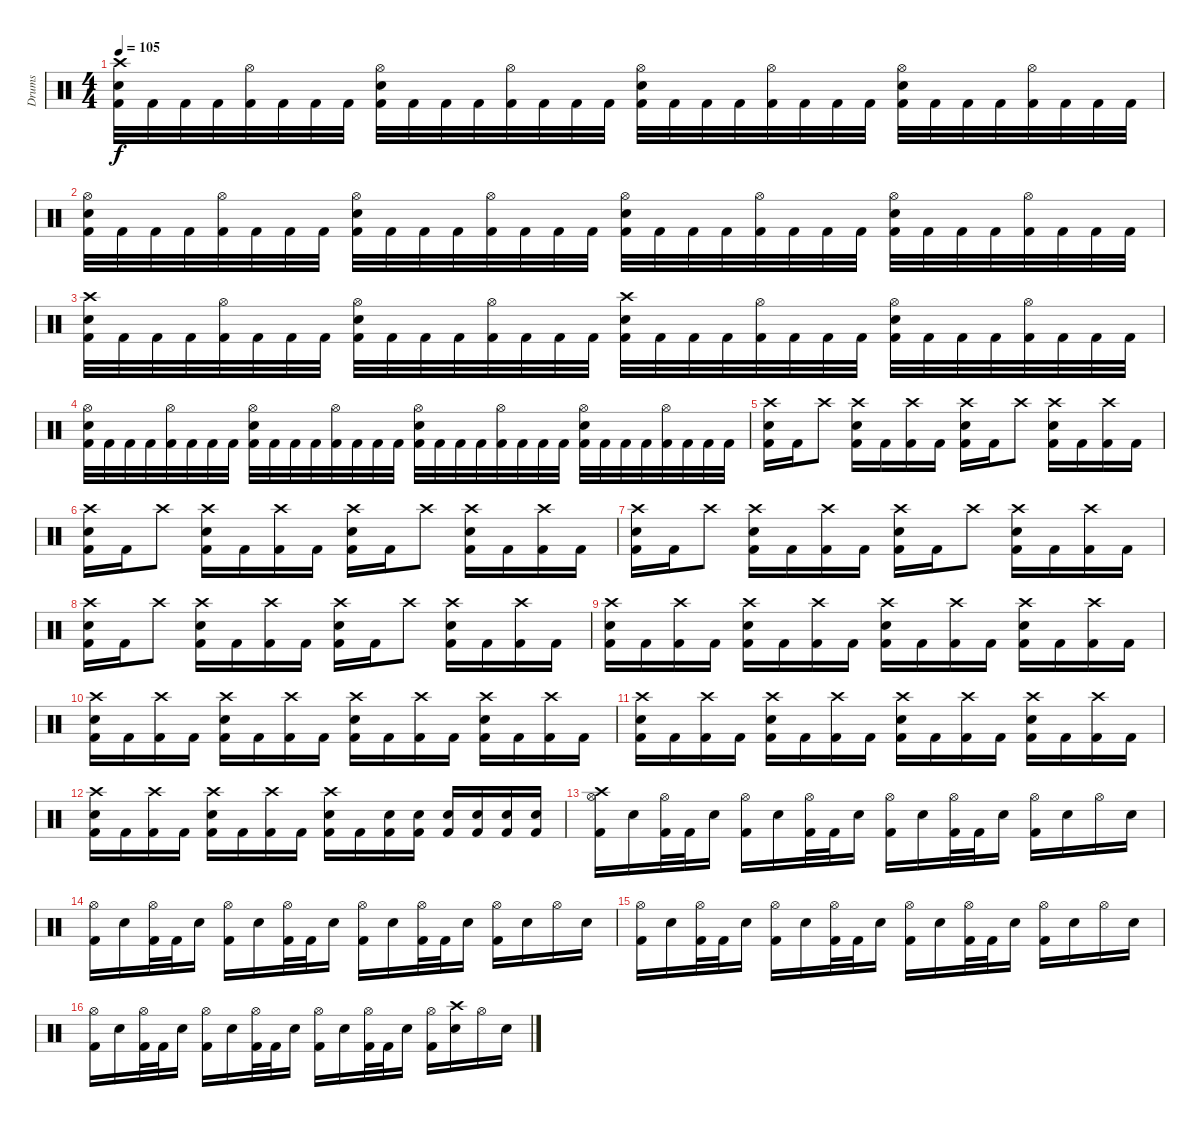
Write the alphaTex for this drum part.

\track ("Drums" "Drums") {instrument percussion}
\staff {score}
\articulation defaults
\ts (4 4)
\tempo 105
\clef neutral
\ks c
("Crash high (hit)" "Snare (hit) 2" "Kick (hit) 2").32{dy f} "Kick (hit) 2".32 "Kick (hit) 2".32 "Kick (hit) 2".32 ("Hi-Hat (open)" "Kick (hit) 2").32 "Kick (hit) 2".32 "Kick (hit) 2".32 "Kick (hit) 2".32 ("Snare (hit) 2" "Hi-Hat (open)" "Kick (hit) 2").32 "Kick (hit) 2".32 "Kick (hit) 2".32 "Kick (hit) 2".32 ("Hi-Hat (open)" "Kick (hit) 2").32 "Kick (hit) 2".32 "Kick (hit) 2".32 "Kick (hit) 2".32 ("Snare (hit) 2" "Hi-Hat (open)" "Kick (hit) 2").32 "Kick (hit) 2".32 "Kick (hit) 2".32 "Kick (hit) 2".32 ("Hi-Hat (open)" "Kick (hit) 2").32 "Kick (hit) 2".32 "Kick (hit) 2".32 "Kick (hit) 2".32 ("Snare (hit) 2" "Hi-Hat (open)" "Kick (hit) 2").32 "Kick (hit) 2".32 "Kick (hit) 2".32 "Kick (hit) 2".32 ("Hi-Hat (open)" "Kick (hit) 2").32 "Kick (hit) 2".32 "Kick (hit) 2".32 "Kick (hit) 2".32 |
("Snare (hit) 2" "Hi-Hat (open)" "Kick (hit) 2").32 "Kick (hit) 2".32 "Kick (hit) 2".32 "Kick (hit) 2".32 ("Hi-Hat (open)" "Kick (hit) 2").32 "Kick (hit) 2".32 "Kick (hit) 2".32 "Kick (hit) 2".32 ("Snare (hit) 2" "Hi-Hat (open)" "Kick (hit) 2").32 "Kick (hit) 2".32 "Kick (hit) 2".32 "Kick (hit) 2".32 ("Hi-Hat (open)" "Kick (hit) 2").32 "Kick (hit) 2".32 "Kick (hit) 2".32 "Kick (hit) 2".32 ("Snare (hit) 2" "Hi-Hat (open)" "Kick (hit) 2").32 "Kick (hit) 2".32 "Kick (hit) 2".32 "Kick (hit) 2".32 ("Hi-Hat (open)" "Kick (hit) 2").32 "Kick (hit) 2".32 "Kick (hit) 2".32 "Kick (hit) 2".32 ("Snare (hit) 2" "Hi-Hat (open)" "Kick (hit) 2").32 "Kick (hit) 2".32 "Kick (hit) 2".32 "Kick (hit) 2".32 ("Hi-Hat (open)" "Kick (hit) 2").32 "Kick (hit) 2".32 "Kick (hit) 2".32 "Kick (hit) 2".32 |
("Crash high (hit)" "Snare (hit) 2" "Kick (hit) 2").32 "Kick (hit) 2".32 "Kick (hit) 2".32 "Kick (hit) 2".32 ("Hi-Hat (open)" "Kick (hit) 2").32 "Kick (hit) 2".32 "Kick (hit) 2".32 "Kick (hit) 2".32 ("Snare (hit) 2" "Hi-Hat (open)" "Kick (hit) 2").32 "Kick (hit) 2".32 "Kick (hit) 2".32 "Kick (hit) 2".32 ("Hi-Hat (open)" "Kick (hit) 2").32 "Kick (hit) 2".32 "Kick (hit) 2".32 "Kick (hit) 2".32 ("Crash high (hit)" "Snare (hit) 2" "Kick (hit) 2").32 "Kick (hit) 2".32 "Kick (hit) 2".32 "Kick (hit) 2".32 ("Hi-Hat (open)" "Kick (hit) 2").32 "Kick (hit) 2".32 "Kick (hit) 2".32 "Kick (hit) 2".32 ("Snare (hit) 2" "Hi-Hat (open)" "Kick (hit) 2").32 "Kick (hit) 2".32 "Kick (hit) 2".32 "Kick (hit) 2".32 ("Hi-Hat (open)" "Kick (hit) 2").32 "Kick (hit) 2".32 "Kick (hit) 2".32 "Kick (hit) 2".32 |
("Snare (hit) 2" "Hi-Hat (open)" "Kick (hit) 2").32 "Kick (hit) 2".32 "Kick (hit) 2".32 "Kick (hit) 2".32 ("Hi-Hat (open)" "Kick (hit) 2").32 "Kick (hit) 2".32 "Kick (hit) 2".32 "Kick (hit) 2".32 ("Snare (hit) 2" "Hi-Hat (open)" "Kick (hit) 2").32 "Kick (hit) 2".32 "Kick (hit) 2".32 "Kick (hit) 2".32 ("Hi-Hat (open)" "Kick (hit) 2").32 "Kick (hit) 2".32 "Kick (hit) 2".32 "Kick (hit) 2".32 ("Snare (hit) 2" "Hi-Hat (open)" "Kick (hit) 2").32 "Kick (hit) 2".32 "Kick (hit) 2".32 "Kick (hit) 2".32 ("Hi-Hat (open)" "Kick (hit) 2").32 "Kick (hit) 2".32 "Kick (hit) 2".32 "Kick (hit) 2".32 ("Snare (hit) 2" "Hi-Hat (open)" "Kick (hit) 2").32 "Kick (hit) 2".32 "Kick (hit) 2".32 "Kick (hit) 2".32 ("Hi-Hat (open)" "Kick (hit) 2").32 "Kick (hit) 2".32 "Kick (hit) 2".32 "Kick (hit) 2".32 |
("Crash high (hit)" "Snare (hit) 2" "Kick (hit) 2").16 "Kick (hit) 2".16 "Crash high (hit)".8 ("Crash high (hit)" "Snare (hit) 2" "Kick (hit) 2").16 "Kick (hit) 2".16 ("Crash high (hit)" "Kick (hit) 2").16 "Kick (hit) 2".16 ("Crash high (hit)" "Snare (hit) 2" "Kick (hit) 2").16 "Kick (hit) 2".16 "Crash high (hit)".8 ("Crash high (hit)" "Snare (hit) 2" "Kick (hit) 2").16 "Kick (hit) 2".16 ("Crash high (hit)" "Kick (hit) 2").16 "Kick (hit) 2".16 |
("Crash high (hit)" "Snare (hit) 2" "Kick (hit) 2").16 "Kick (hit) 2".16 "Crash high (hit)".8 ("Crash high (hit)" "Snare (hit) 2" "Kick (hit) 2").16 "Kick (hit) 2".16 ("Crash high (hit)" "Kick (hit) 2").16 "Kick (hit) 2".16 ("Crash high (hit)" "Snare (hit) 2" "Kick (hit) 2").16 "Kick (hit) 2".16 "Crash high (hit)".8 ("Crash high (hit)" "Snare (hit) 2" "Kick (hit) 2").16 "Kick (hit) 2".16 ("Crash high (hit)" "Kick (hit) 2").16 "Kick (hit) 2".16 |
("Crash high (hit)" "Snare (hit) 2" "Kick (hit) 2").16 "Kick (hit) 2".16 "Crash high (hit)".8 ("Crash high (hit)" "Snare (hit) 2" "Kick (hit) 2").16 "Kick (hit) 2".16 ("Crash high (hit)" "Kick (hit) 2").16 "Kick (hit) 2".16 ("Crash high (hit)" "Snare (hit) 2" "Kick (hit) 2").16 "Kick (hit) 2".16 "Crash high (hit)".8 ("Crash high (hit)" "Snare (hit) 2" "Kick (hit) 2").16 "Kick (hit) 2".16 ("Crash high (hit)" "Kick (hit) 2").16 "Kick (hit) 2".16 |
("Crash high (hit)" "Snare (hit) 2" "Kick (hit) 2").16 "Kick (hit) 2".16 "Crash high (hit)".8 ("Crash high (hit)" "Snare (hit) 2" "Kick (hit) 2").16 "Kick (hit) 2".16 ("Crash high (hit)" "Kick (hit) 2").16 "Kick (hit) 2".16 ("Crash high (hit)" "Snare (hit) 2" "Kick (hit) 2").16 "Kick (hit) 2".16 "Crash high (hit)".8 ("Crash high (hit)" "Snare (hit) 2" "Kick (hit) 2").16 "Kick (hit) 2".16 ("Crash high (hit)" "Kick (hit) 2").16 "Kick (hit) 2".16 |
("Crash high (hit)" "Snare (hit) 2" "Kick (hit) 2").16 "Kick (hit) 2".16 ("Crash high (hit)" "Kick (hit) 2").16 "Kick (hit) 2".16 ("Crash high (hit)" "Snare (hit) 2" "Kick (hit) 2").16 "Kick (hit) 2".16 ("Crash high (hit)" "Kick (hit) 2").16 "Kick (hit) 2".16 ("Crash high (hit)" "Snare (hit) 2" "Kick (hit) 2").16 "Kick (hit) 2".16 ("Crash high (hit)" "Kick (hit) 2").16 "Kick (hit) 2".16 ("Crash high (hit)" "Snare (hit) 2" "Kick (hit) 2").16 "Kick (hit) 2".16 ("Crash high (hit)" "Kick (hit) 2").16 "Kick (hit) 2".16 |
("Crash high (hit)" "Snare (hit) 2" "Kick (hit) 2").16 "Kick (hit) 2".16 ("Crash high (hit)" "Kick (hit) 2").16 "Kick (hit) 2".16 ("Crash high (hit)" "Snare (hit) 2" "Kick (hit) 2").16 "Kick (hit) 2".16 ("Crash high (hit)" "Kick (hit) 2").16 "Kick (hit) 2".16 ("Crash high (hit)" "Snare (hit) 2" "Kick (hit) 2").16 "Kick (hit) 2".16 ("Crash high (hit)" "Kick (hit) 2").16 "Kick (hit) 2".16 ("Crash high (hit)" "Snare (hit) 2" "Kick (hit) 2").16 "Kick (hit) 2".16 ("Crash high (hit)" "Kick (hit) 2").16 "Kick (hit) 2".16 |
("Crash high (hit)" "Snare (hit) 2" "Kick (hit) 2").16 "Kick (hit) 2".16 ("Crash high (hit)" "Kick (hit) 2").16 "Kick (hit) 2".16 ("Crash high (hit)" "Snare (hit) 2" "Kick (hit) 2").16 "Kick (hit) 2".16 ("Crash high (hit)" "Kick (hit) 2").16 "Kick (hit) 2".16 ("Crash high (hit)" "Snare (hit) 2" "Kick (hit) 2").16 "Kick (hit) 2".16 ("Crash high (hit)" "Kick (hit) 2").16 "Kick (hit) 2".16 ("Crash high (hit)" "Snare (hit) 2" "Kick (hit) 2").16 "Kick (hit) 2".16 ("Crash high (hit)" "Kick (hit) 2").16 "Kick (hit) 2".16 |
("Crash high (hit)" "Snare (hit) 2" "Kick (hit) 2").16 "Kick (hit) 2".16 ("Crash high (hit)" "Kick (hit) 2").16 "Kick (hit) 2".16 ("Crash high (hit)" "Snare (hit) 2" "Kick (hit) 2").16 "Kick (hit) 2".16 ("Crash high (hit)" "Kick (hit) 2").16 "Kick (hit) 2".16 ("Crash high (hit)" "Snare (hit) 2" "Kick (hit) 2").16 "Kick (hit) 2".16 ("Snare (hit) 2" "Kick (hit) 2").16 ("Snare (hit) 2" "Kick (hit) 2").16 ("Snare (hit) 2" "Kick (hit) 2").16 ("Snare (hit) 2" "Kick (hit) 2").16 ("Snare (hit) 2" "Kick (hit) 2").16 ("Snare (hit) 2" "Kick (hit) 2").16 |
("Crash high (hit)" "Hi-Hat (open)" "Kick (hit) 2").16 "Snare (hit) 2".16 ("Hi-Hat (open)" "Kick (hit) 2").32 "Kick (hit) 2".32 "Snare (hit) 2".16 ("Hi-Hat (open)" "Kick (hit) 2").16 "Snare (hit) 2".16 ("Hi-Hat (open)" "Kick (hit) 2").32 "Kick (hit) 2".32 "Snare (hit) 2".16 ("Hi-Hat (open)" "Kick (hit) 2").16 "Snare (hit) 2".16 ("Hi-Hat (open)" "Kick (hit) 2").32 "Kick (hit) 2".32 "Snare (hit) 2".16 ("Hi-Hat (open)" "Kick (hit) 2").16 "Snare (hit) 2".16 "Hi-Hat (open)".16 "Snare (hit) 2".16 |
("Hi-Hat (open)" "Kick (hit) 2").16 "Snare (hit) 2".16 ("Hi-Hat (open)" "Kick (hit) 2").32 "Kick (hit) 2".32 "Snare (hit) 2".16 ("Hi-Hat (open)" "Kick (hit) 2").16 "Snare (hit) 2".16 ("Hi-Hat (open)" "Kick (hit) 2").32 "Kick (hit) 2".32 "Snare (hit) 2".16 ("Hi-Hat (open)" "Kick (hit) 2").16 "Snare (hit) 2".16 ("Hi-Hat (open)" "Kick (hit) 2").32 "Kick (hit) 2".32 "Snare (hit) 2".16 ("Hi-Hat (open)" "Kick (hit) 2").16 "Snare (hit) 2".16 "Hi-Hat (open)".16 "Snare (hit) 2".16 |
("Hi-Hat (open)" "Kick (hit) 2").16 "Snare (hit) 2".16 ("Hi-Hat (open)" "Kick (hit) 2").32 "Kick (hit) 2".32 "Snare (hit) 2".16 ("Hi-Hat (open)" "Kick (hit) 2").16 "Snare (hit) 2".16 ("Hi-Hat (open)" "Kick (hit) 2").32 "Kick (hit) 2".32 "Snare (hit) 2".16 ("Hi-Hat (open)" "Kick (hit) 2").16 "Snare (hit) 2".16 ("Hi-Hat (open)" "Kick (hit) 2").32 "Kick (hit) 2".32 "Snare (hit) 2".16 ("Hi-Hat (open)" "Kick (hit) 2").16 "Snare (hit) 2".16 "Hi-Hat (open)".16 "Snare (hit) 2".16 |
("Hi-Hat (open)" "Kick (hit) 2").16 "Snare (hit) 2".16 ("Hi-Hat (open)" "Kick (hit) 2").32 "Kick (hit) 2".32 "Snare (hit) 2".16 ("Hi-Hat (open)" "Kick (hit) 2").16 "Snare (hit) 2".16 ("Hi-Hat (open)" "Kick (hit) 2").32 "Kick (hit) 2".32 "Snare (hit) 2".16 ("Hi-Hat (open)" "Kick (hit) 2").16 "Snare (hit) 2".16 ("Hi-Hat (open)" "Kick (hit) 2").32 "Kick (hit) 2".32 "Snare (hit) 2".16 ("Hi-Hat (open)" "Kick (hit) 2").16 ("Crash high (hit)" "Snare (hit) 2").16 "Hi-Hat (open)".16 "Snare (hit) 2".16
